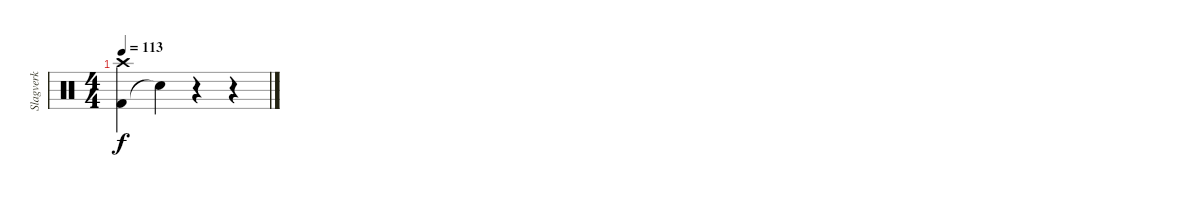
\track ("Slagverk" "Slagverk") {instrument percussion}
\staff {score}
\articulation defaults
\ts (4 4)
\tempo 113
\clef neutral
\ks c
("Kick (hit) 2" "Crash high (hit)").4{dy f} "Snare (hit)"{t}.4 r.4 r.4
